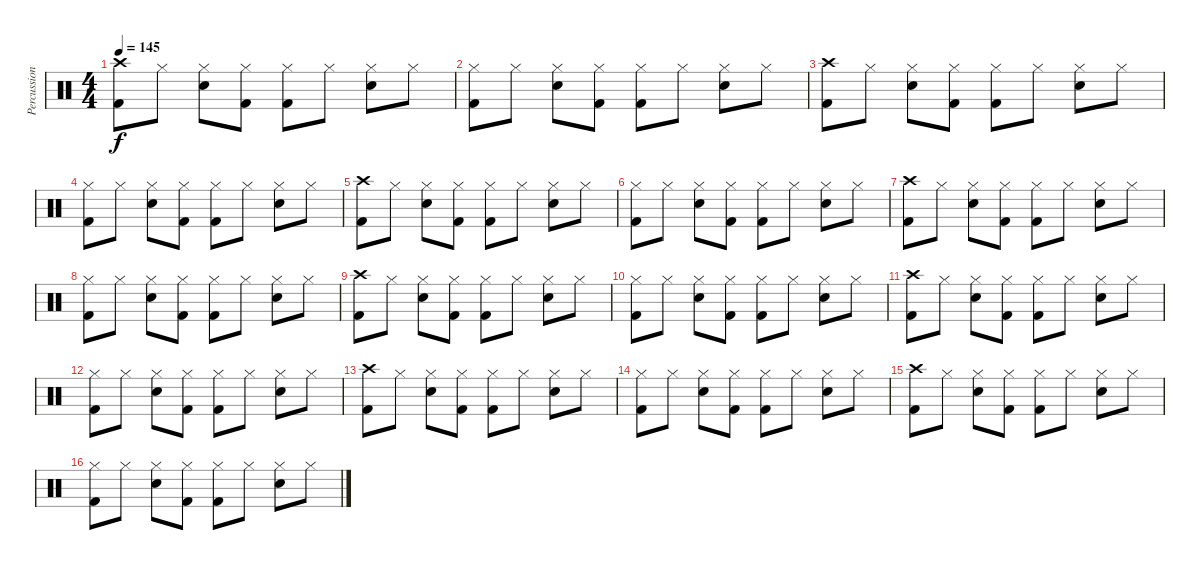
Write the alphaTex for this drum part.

\track ("Percussion" "Percussion") {instrument percussion}
\staff {score}
\articulation defaults
\ts (4 4)
\tempo 145
\clef neutral
\ks c
("Crash high (hit)" "Kick (hit) 2").8{dy f} "Hi-Hat (closed)".8 ("Hi-Hat (closed)" "Electric Snare (hit)").8 ("Hi-Hat (closed)" "Kick (hit) 2").8 ("Hi-Hat (closed)" "Kick (hit) 2").8 "Hi-Hat (closed)".8 ("Hi-Hat (closed)" "Electric Snare (hit)").8 "Hi-Hat (closed)".8 |
("Hi-Hat (closed)" "Kick (hit) 2").8 "Hi-Hat (closed)".8 ("Hi-Hat (closed)" "Electric Snare (hit)").8 ("Hi-Hat (closed)" "Kick (hit) 2").8 ("Hi-Hat (closed)" "Kick (hit) 2").8 "Hi-Hat (closed)".8 ("Hi-Hat (closed)" "Electric Snare (hit)").8 "Hi-Hat (closed)".8 |
("Crash high (hit)" "Kick (hit) 2").8 "Hi-Hat (closed)".8 ("Hi-Hat (closed)" "Electric Snare (hit)").8 ("Hi-Hat (closed)" "Kick (hit) 2").8 ("Hi-Hat (closed)" "Kick (hit) 2").8 "Hi-Hat (closed)".8 ("Hi-Hat (closed)" "Electric Snare (hit)").8 "Hi-Hat (closed)".8 |
("Hi-Hat (closed)" "Kick (hit) 2").8 "Hi-Hat (closed)".8 ("Hi-Hat (closed)" "Electric Snare (hit)").8 ("Hi-Hat (closed)" "Kick (hit) 2").8 ("Hi-Hat (closed)" "Kick (hit) 2").8 "Hi-Hat (closed)".8 ("Hi-Hat (closed)" "Electric Snare (hit)").8 "Hi-Hat (closed)".8 |
("Crash high (hit)" "Kick (hit) 2").8 "Hi-Hat (closed)".8 ("Hi-Hat (closed)" "Electric Snare (hit)").8 ("Hi-Hat (closed)" "Kick (hit) 2").8 ("Hi-Hat (closed)" "Kick (hit) 2").8 "Hi-Hat (closed)".8 ("Hi-Hat (closed)" "Electric Snare (hit)").8 "Hi-Hat (closed)".8 |
("Hi-Hat (closed)" "Kick (hit) 2").8 "Hi-Hat (closed)".8 ("Hi-Hat (closed)" "Electric Snare (hit)").8 ("Hi-Hat (closed)" "Kick (hit) 2").8 ("Hi-Hat (closed)" "Kick (hit) 2").8 "Hi-Hat (closed)".8 ("Hi-Hat (closed)" "Electric Snare (hit)").8 "Hi-Hat (closed)".8 |
("Crash high (hit)" "Kick (hit) 2").8 "Hi-Hat (closed)".8 ("Hi-Hat (closed)" "Electric Snare (hit)").8 ("Hi-Hat (closed)" "Kick (hit) 2").8 ("Hi-Hat (closed)" "Kick (hit) 2").8 "Hi-Hat (closed)".8 ("Hi-Hat (closed)" "Electric Snare (hit)").8 "Hi-Hat (closed)".8 |
("Hi-Hat (closed)" "Kick (hit) 2").8 "Hi-Hat (closed)".8 ("Hi-Hat (closed)" "Electric Snare (hit)").8 ("Hi-Hat (closed)" "Kick (hit) 2").8 ("Hi-Hat (closed)" "Kick (hit) 2").8 "Hi-Hat (closed)".8 ("Hi-Hat (closed)" "Electric Snare (hit)").8 "Hi-Hat (closed)".8 |
("Crash high (hit)" "Kick (hit) 2").8 "Hi-Hat (closed)".8 ("Hi-Hat (closed)" "Electric Snare (hit)").8 ("Hi-Hat (closed)" "Kick (hit) 2").8 ("Hi-Hat (closed)" "Kick (hit) 2").8 "Hi-Hat (closed)".8 ("Hi-Hat (closed)" "Electric Snare (hit)").8 "Hi-Hat (closed)".8 |
("Hi-Hat (closed)" "Kick (hit) 2").8 "Hi-Hat (closed)".8 ("Hi-Hat (closed)" "Electric Snare (hit)").8 ("Hi-Hat (closed)" "Kick (hit) 2").8 ("Hi-Hat (closed)" "Kick (hit) 2").8 "Hi-Hat (closed)".8 ("Hi-Hat (closed)" "Electric Snare (hit)").8 "Hi-Hat (closed)".8 |
("Crash high (hit)" "Kick (hit) 2").8 "Hi-Hat (closed)".8 ("Hi-Hat (closed)" "Electric Snare (hit)").8 ("Hi-Hat (closed)" "Kick (hit) 2").8 ("Hi-Hat (closed)" "Kick (hit) 2").8 "Hi-Hat (closed)".8 ("Hi-Hat (closed)" "Electric Snare (hit)").8 "Hi-Hat (closed)".8 |
("Hi-Hat (closed)" "Kick (hit) 2").8 "Hi-Hat (closed)".8 ("Hi-Hat (closed)" "Electric Snare (hit)").8 ("Hi-Hat (closed)" "Kick (hit) 2").8 ("Hi-Hat (closed)" "Kick (hit) 2").8 "Hi-Hat (closed)".8 ("Hi-Hat (closed)" "Electric Snare (hit)").8 "Hi-Hat (closed)".8 |
("Crash high (hit)" "Kick (hit) 2").8 "Hi-Hat (closed)".8 ("Hi-Hat (closed)" "Electric Snare (hit)").8 ("Hi-Hat (closed)" "Kick (hit) 2").8 ("Hi-Hat (closed)" "Kick (hit) 2").8 "Hi-Hat (closed)".8 ("Hi-Hat (closed)" "Electric Snare (hit)").8 "Hi-Hat (closed)".8 |
("Hi-Hat (closed)" "Kick (hit) 2").8 "Hi-Hat (closed)".8 ("Hi-Hat (closed)" "Electric Snare (hit)").8 ("Hi-Hat (closed)" "Kick (hit) 2").8 ("Hi-Hat (closed)" "Kick (hit) 2").8 "Hi-Hat (closed)".8 ("Hi-Hat (closed)" "Electric Snare (hit)").8 "Hi-Hat (closed)".8 |
("Crash high (hit)" "Kick (hit) 2").8 "Hi-Hat (closed)".8 ("Hi-Hat (closed)" "Electric Snare (hit)").8 ("Hi-Hat (closed)" "Kick (hit) 2").8 ("Hi-Hat (closed)" "Kick (hit) 2").8 "Hi-Hat (closed)".8 ("Hi-Hat (closed)" "Electric Snare (hit)").8 "Hi-Hat (closed)".8 |
("Hi-Hat (closed)" "Kick (hit) 2").8 "Hi-Hat (closed)".8 ("Hi-Hat (closed)" "Electric Snare (hit)").8 ("Hi-Hat (closed)" "Kick (hit) 2").8 ("Hi-Hat (closed)" "Kick (hit) 2").8 "Hi-Hat (closed)".8 ("Hi-Hat (closed)" "Electric Snare (hit)").8 "Hi-Hat (closed)".8
